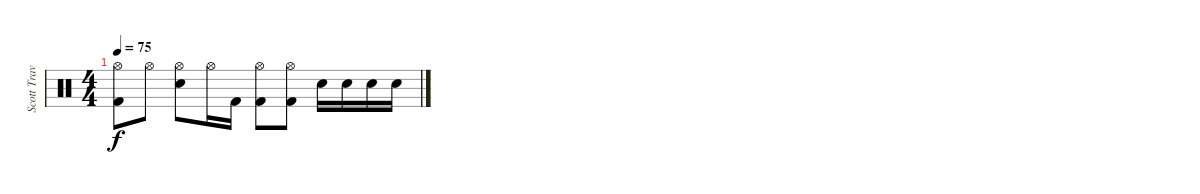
\track ("Scott Travis" "Scott Trav") {instrument percussion}
\staff {score}
\articulation defaults
\ts (4 4)
\tempo 75
\clef neutral
\ks c
("Hi-Hat (open)" "Kick (hit) 2").8{dy f} "Hi-Hat (open)".8 ("Hi-Hat (open)" "Snare (hit) 2").8 "Hi-Hat (open)".16 "Kick (hit) 2".16 ("Hi-Hat (open)" "Kick (hit) 2").8 ("Hi-Hat (open)" "Kick (hit) 2").8 "Snare (hit) 2".16 "Snare (hit) 2".16 "Snare (hit) 2".16 "Snare (hit) 2".16
